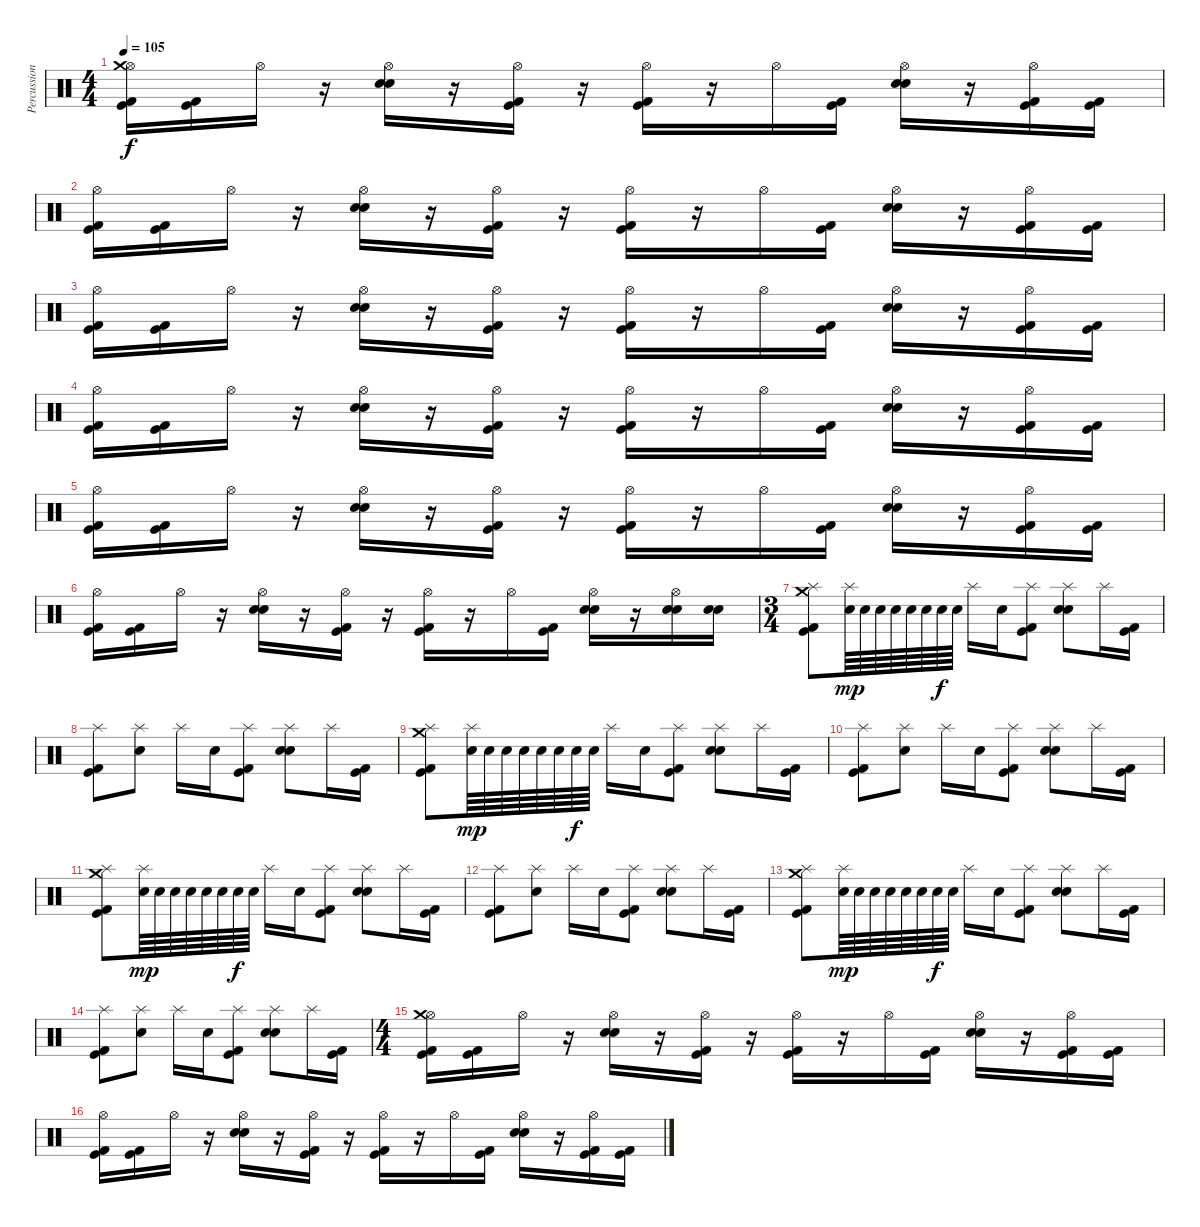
\track ("Percussions" "Percussion") {instrument percussion}
\staff {score}
\articulation defaults
\ts (4 4)
\tempo 105
\clef neutral
\ks c
("Hi-Hat (open)" "Crash medium (hit)" "Kick (hit) 2" "Kick (hit)").16{dy f} ("Kick (hit)" "Kick (hit) 2").16 "Hi-Hat (open)".16 r.16 ("Hi-Hat (open)" "Electric Snare (hit)" "Electric Snare (hit)").16 r.16 ("Hi-Hat (open)" "Kick (hit) 2" "Kick (hit)").16 r.16 ("Hi-Hat (open)" "Kick (hit) 2" "Kick (hit)").16 r.16 "Hi-Hat (open)".16 ("Kick (hit) 2" "Kick (hit)").16 ("Hi-Hat (open)" "Electric Snare (hit)" "Electric Snare (hit)").16 r.16 ("Hi-Hat (open)" "Kick (hit) 2" "Kick (hit)").16 ("Kick (hit)" "Kick (hit) 2").16 |
("Hi-Hat (open)" "Kick (hit) 2" "Kick (hit)").16 ("Kick (hit)" "Kick (hit) 2").16 "Hi-Hat (open)".16 r.16 ("Hi-Hat (open)" "Electric Snare (hit)" "Electric Snare (hit)").16 r.16 ("Hi-Hat (open)" "Kick (hit) 2" "Kick (hit)").16 r.16 ("Hi-Hat (open)" "Kick (hit) 2" "Kick (hit)").16 r.16 "Hi-Hat (open)".16 ("Kick (hit) 2" "Kick (hit)").16 ("Hi-Hat (open)" "Electric Snare (hit)" "Electric Snare (hit)").16 r.16 ("Hi-Hat (open)" "Kick (hit) 2" "Kick (hit)").16 ("Kick (hit)" "Kick (hit) 2").16 |
("Hi-Hat (open)" "Kick (hit) 2" "Kick (hit)").16 ("Kick (hit)" "Kick (hit) 2").16 "Hi-Hat (open)".16 r.16 ("Hi-Hat (open)" "Electric Snare (hit)" "Electric Snare (hit)").16 r.16 ("Hi-Hat (open)" "Kick (hit) 2" "Kick (hit)").16 r.16 ("Hi-Hat (open)" "Kick (hit) 2" "Kick (hit)").16 r.16 "Hi-Hat (open)".16 ("Kick (hit) 2" "Kick (hit)").16 ("Hi-Hat (open)" "Electric Snare (hit)" "Electric Snare (hit)").16 r.16 ("Hi-Hat (open)" "Kick (hit) 2" "Kick (hit)").16 ("Kick (hit)" "Kick (hit) 2").16 |
("Hi-Hat (open)" "Kick (hit) 2" "Kick (hit)").16 ("Kick (hit)" "Kick (hit) 2").16 "Hi-Hat (open)".16 r.16 ("Hi-Hat (open)" "Electric Snare (hit)" "Electric Snare (hit)").16 r.16 ("Hi-Hat (open)" "Kick (hit) 2" "Kick (hit)").16 r.16 ("Hi-Hat (open)" "Kick (hit) 2" "Kick (hit)").16 r.16 "Hi-Hat (open)".16 ("Kick (hit) 2" "Kick (hit)").16 ("Hi-Hat (open)" "Electric Snare (hit)" "Electric Snare (hit)").16 r.16 ("Hi-Hat (open)" "Kick (hit) 2" "Kick (hit)").16 ("Kick (hit)" "Kick (hit) 2").16 |
("Hi-Hat (open)" "Kick (hit) 2" "Kick (hit)").16 ("Kick (hit)" "Kick (hit) 2").16 "Hi-Hat (open)".16 r.16 ("Hi-Hat (open)" "Electric Snare (hit)" "Electric Snare (hit)").16 r.16 ("Hi-Hat (open)" "Kick (hit) 2" "Kick (hit)").16 r.16 ("Hi-Hat (open)" "Kick (hit) 2" "Kick (hit)").16 r.16 "Hi-Hat (open)".16 ("Kick (hit) 2" "Kick (hit)").16 ("Hi-Hat (open)" "Electric Snare (hit)" "Electric Snare (hit)").16 r.16 ("Hi-Hat (open)" "Kick (hit) 2" "Kick (hit)").16 ("Kick (hit)" "Kick (hit) 2").16 |
("Hi-Hat (open)" "Kick (hit) 2" "Kick (hit)").16 ("Kick (hit)" "Kick (hit) 2").16 "Hi-Hat (open)".16 r.16 ("Hi-Hat (open)" "Electric Snare (hit)" "Electric Snare (hit)").16 r.16 ("Hi-Hat (open)" "Kick (hit) 2" "Kick (hit)").16 r.16 ("Hi-Hat (open)" "Kick (hit) 2" "Kick (hit)").16 r.16 "Hi-Hat (open)".16 ("Kick (hit) 2" "Kick (hit)").16 ("Hi-Hat (open)" "Electric Snare (hit)" "Electric Snare (hit)").16 r.16 ("Hi-Hat (open)" "Electric Snare (hit)" "Electric Snare (hit)").16 ("Electric Snare (hit)" "Electric Snare (hit)").16 |
\ts (3 4)
("Crash medium (hit)" "Splash (hit)" "Kick (hit) 2" "Kick (hit)").8 ("Splash (hit)" "Electric Snare (hit)").64{dy mp} "Electric Snare (hit)".64 "Electric Snare (hit)".64 "Electric Snare (hit)".64 "Electric Snare (hit)".64 "Electric Snare (hit)".64 "Electric Snare (hit)".64{dy f} "Electric Snare (hit)".64 "Splash (hit)".16 "Snare (hit) 2".16 ("Splash (hit)" "Kick (hit)" "Kick (hit) 2").8 ("Splash (hit)" "Electric Snare (hit)" "Snare (hit) 2").8 "Splash (hit)".16 ("Kick (hit) 2" "Kick (hit)").16 |
("Splash (hit)" "Kick (hit) 2" "Kick (hit)").8 ("Splash (hit)" "Electric Snare (hit)").8 "Splash (hit)".16 "Snare (hit) 2".16 ("Splash (hit)" "Kick (hit)" "Kick (hit) 2").8 ("Splash (hit)" "Electric Snare (hit)" "Snare (hit) 2").8 "Splash (hit)".16 ("Kick (hit) 2" "Kick (hit)").16 |
("Crash medium (hit)" "Splash (hit)" "Kick (hit) 2" "Kick (hit)").8 ("Splash (hit)" "Electric Snare (hit)").64{dy mp} "Electric Snare (hit)".64 "Electric Snare (hit)".64 "Electric Snare (hit)".64 "Electric Snare (hit)".64 "Electric Snare (hit)".64 "Electric Snare (hit)".64{dy f} "Electric Snare (hit)".64 "Splash (hit)".16 "Snare (hit) 2".16 ("Splash (hit)" "Kick (hit)" "Kick (hit) 2").8 ("Splash (hit)" "Electric Snare (hit)" "Snare (hit) 2").8 "Splash (hit)".16 ("Kick (hit) 2" "Kick (hit)").16 |
("Splash (hit)" "Kick (hit) 2" "Kick (hit)").8 ("Splash (hit)" "Electric Snare (hit)").8 "Splash (hit)".16 "Snare (hit) 2".16 ("Splash (hit)" "Kick (hit)" "Kick (hit) 2").8 ("Splash (hit)" "Electric Snare (hit)" "Snare (hit) 2").8 "Splash (hit)".16 ("Kick (hit) 2" "Kick (hit)").16 |
("Crash medium (hit)" "Splash (hit)" "Kick (hit) 2" "Kick (hit)").8 ("Splash (hit)" "Electric Snare (hit)").64{dy mp} "Electric Snare (hit)".64 "Electric Snare (hit)".64 "Electric Snare (hit)".64 "Electric Snare (hit)".64 "Electric Snare (hit)".64 "Electric Snare (hit)".64{dy f} "Electric Snare (hit)".64 "Splash (hit)".16 "Snare (hit) 2".16 ("Splash (hit)" "Kick (hit)" "Kick (hit) 2").8 ("Splash (hit)" "Electric Snare (hit)" "Snare (hit) 2").8 "Splash (hit)".16 ("Kick (hit) 2" "Kick (hit)").16 |
("Splash (hit)" "Kick (hit) 2" "Kick (hit)").8 ("Splash (hit)" "Electric Snare (hit)").8 "Splash (hit)".16 "Snare (hit) 2".16 ("Splash (hit)" "Kick (hit)" "Kick (hit) 2").8 ("Splash (hit)" "Electric Snare (hit)" "Snare (hit) 2").8 "Splash (hit)".16 ("Kick (hit) 2" "Kick (hit)").16 |
("Crash medium (hit)" "Splash (hit)" "Kick (hit) 2" "Kick (hit)").8 ("Splash (hit)" "Electric Snare (hit)").64{dy mp} "Electric Snare (hit)".64 "Electric Snare (hit)".64 "Electric Snare (hit)".64 "Electric Snare (hit)".64 "Electric Snare (hit)".64 "Electric Snare (hit)".64{dy f} "Electric Snare (hit)".64 "Splash (hit)".16 "Snare (hit) 2".16 ("Splash (hit)" "Kick (hit)" "Kick (hit) 2").8 ("Splash (hit)" "Electric Snare (hit)" "Snare (hit) 2").8 "Splash (hit)".16 ("Kick (hit) 2" "Kick (hit)").16 |
("Splash (hit)" "Kick (hit) 2" "Kick (hit)").8 ("Splash (hit)" "Electric Snare (hit)").8 "Splash (hit)".16 "Snare (hit) 2".16 ("Splash (hit)" "Kick (hit)" "Kick (hit) 2").8 ("Splash (hit)" "Electric Snare (hit)" "Snare (hit) 2").8 "Splash (hit)".16 ("Kick (hit) 2" "Kick (hit)").16 |
\ts (4 4)
("Hi-Hat (open)" "Crash medium (hit)" "Kick (hit) 2" "Kick (hit)").16 ("Kick (hit)" "Kick (hit) 2").16 "Hi-Hat (open)".16 r.16 ("Hi-Hat (open)" "Electric Snare (hit)" "Electric Snare (hit)").16 r.16 ("Hi-Hat (open)" "Kick (hit) 2" "Kick (hit)").16 r.16 ("Hi-Hat (open)" "Kick (hit) 2" "Kick (hit)").16 r.16 "Hi-Hat (open)".16 ("Kick (hit) 2" "Kick (hit)").16 ("Hi-Hat (open)" "Electric Snare (hit)" "Electric Snare (hit)").16 r.16 ("Hi-Hat (open)" "Kick (hit) 2" "Kick (hit)").16 ("Kick (hit)" "Kick (hit) 2").16 |
("Hi-Hat (open)" "Kick (hit) 2" "Kick (hit)").16 ("Kick (hit)" "Kick (hit) 2").16 "Hi-Hat (open)".16 r.16 ("Hi-Hat (open)" "Electric Snare (hit)" "Electric Snare (hit)").16 r.16 ("Hi-Hat (open)" "Kick (hit) 2" "Kick (hit)").16 r.16 ("Hi-Hat (open)" "Kick (hit) 2" "Kick (hit)").16 r.16 "Hi-Hat (open)".16 ("Kick (hit) 2" "Kick (hit)").16 ("Hi-Hat (open)" "Electric Snare (hit)" "Electric Snare (hit)").16 r.16 ("Hi-Hat (open)" "Kick (hit) 2" "Kick (hit)").16 ("Kick (hit)" "Kick (hit) 2").16
